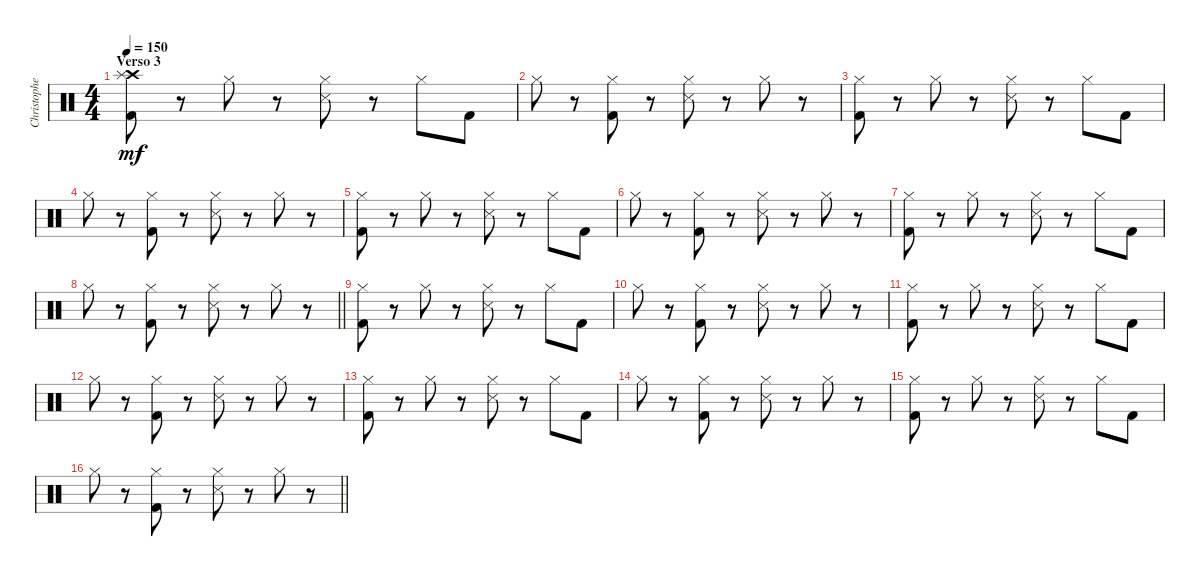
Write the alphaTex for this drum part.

\track ("Christopher" "Christophe") {instrument percussion}
\staff {score}
\articulation defaults
\ts (4 4)
\section ("" "Verso 3")
\tempo 150
\clef neutral
\ks c
("Crash high (hit)" "Splash (hit)" "Kick (hit) 2").8{dy mf} r.8 "Hi-Hat (closed)".8 r.8 ("Hi-Hat (closed)" "Snare (side stick) 3").8 r.8 "Hi-Hat (closed)".8 "Kick (hit) 2".8 |
"Hi-Hat (closed)".8 r.8 ("Hi-Hat (closed)" "Kick (hit) 2").8 r.8 ("Hi-Hat (closed)" "Snare (side stick) 3").8 r.8 "Hi-Hat (closed)".8 r.8 |
("Hi-Hat (closed)" "Kick (hit) 2").8 r.8 "Hi-Hat (closed)".8 r.8 ("Hi-Hat (closed)" "Snare (side stick) 3").8 r.8 "Hi-Hat (closed)".8 "Kick (hit) 2".8 |
"Hi-Hat (closed)".8 r.8 ("Hi-Hat (closed)" "Kick (hit) 2").8 r.8 ("Hi-Hat (closed)" "Snare (side stick) 3").8 r.8 "Hi-Hat (closed)".8 r.8 |
("Hi-Hat (closed)" "Kick (hit) 2").8 r.8 "Hi-Hat (closed)".8 r.8 ("Hi-Hat (closed)" "Snare (side stick) 3").8 r.8 "Hi-Hat (closed)".8 "Kick (hit) 2".8 |
"Hi-Hat (closed)".8 r.8 ("Hi-Hat (closed)" "Kick (hit) 2").8 r.8 ("Hi-Hat (closed)" "Snare (side stick) 3").8 r.8 "Hi-Hat (closed)".8 r.8 |
("Hi-Hat (closed)" "Kick (hit) 2").8 r.8 "Hi-Hat (closed)".8 r.8 ("Hi-Hat (closed)" "Snare (side stick) 3").8 r.8 "Hi-Hat (closed)".8 "Kick (hit) 2".8 |
\barLineRight lightlight "Hi-Hat (closed)".8
r.8 ("Hi-Hat (closed)" "Kick (hit) 2").8 r.8 ("Hi-Hat (closed)" "Snare (side stick) 3").8 r.8 "Hi-Hat (closed)".8 r.8 |
("Hi-Hat (closed)" "Kick (hit) 2").8 r.8 "Hi-Hat (closed)".8 r.8 ("Hi-Hat (closed)" "Snare (side stick) 3").8 r.8 "Hi-Hat (closed)".8 "Kick (hit) 2".8 |
"Hi-Hat (closed)".8 r.8 ("Hi-Hat (closed)" "Kick (hit) 2").8 r.8 ("Hi-Hat (closed)" "Snare (side stick) 3").8 r.8 "Hi-Hat (closed)".8 r.8 |
("Hi-Hat (closed)" "Kick (hit) 2").8 r.8 "Hi-Hat (closed)".8 r.8 ("Hi-Hat (closed)" "Snare (side stick) 3").8 r.8 "Hi-Hat (closed)".8 "Kick (hit) 2".8 |
"Hi-Hat (closed)".8 r.8 ("Hi-Hat (closed)" "Kick (hit) 2").8 r.8 ("Hi-Hat (closed)" "Snare (side stick) 3").8 r.8 "Hi-Hat (closed)".8 r.8 |
("Hi-Hat (closed)" "Kick (hit) 2").8 r.8 "Hi-Hat (closed)".8 r.8 ("Hi-Hat (closed)" "Snare (side stick) 3").8 r.8 "Hi-Hat (closed)".8 "Kick (hit) 2".8 |
"Hi-Hat (closed)".8 r.8 ("Hi-Hat (closed)" "Kick (hit) 2").8 r.8 ("Hi-Hat (closed)" "Snare (side stick) 3").8 r.8 "Hi-Hat (closed)".8 r.8 |
("Hi-Hat (closed)" "Kick (hit) 2").8 r.8 "Hi-Hat (closed)".8 r.8 ("Hi-Hat (closed)" "Snare (side stick) 3").8 r.8 "Hi-Hat (closed)".8 "Kick (hit) 2".8 |
\barLineRight lightlight "Hi-Hat (closed)".8
r.8 ("Hi-Hat (closed)" "Kick (hit) 2").8 r.8 ("Hi-Hat (closed)" "Snare (side stick) 3").8 r.8 "Hi-Hat (closed)".8 r.8
